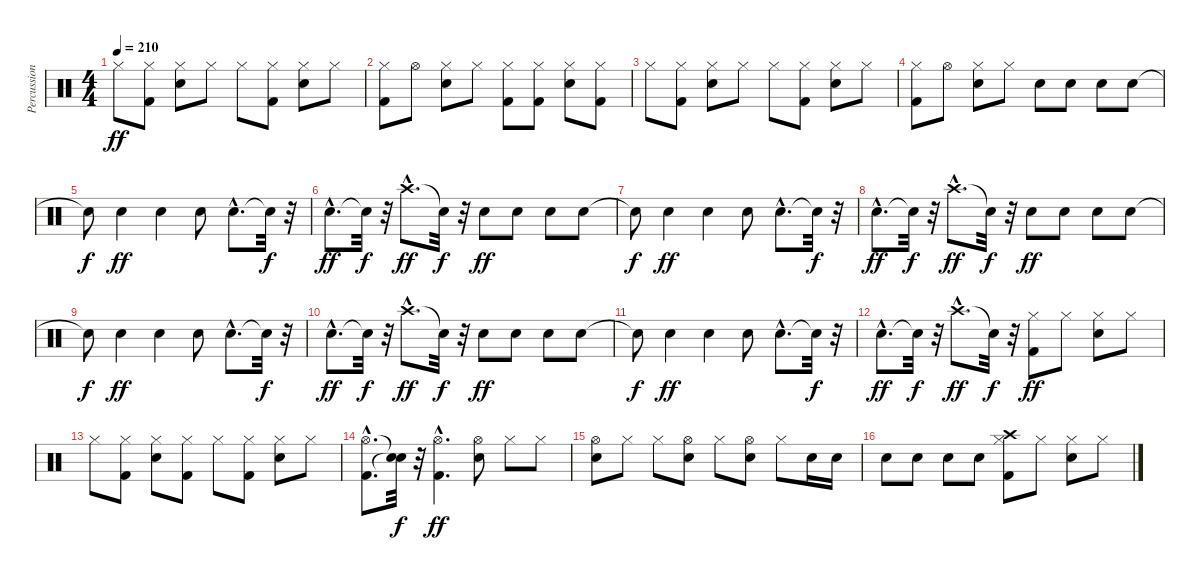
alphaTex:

\track ("Percussions" "Percussion") {instrument percussion}
\staff {score}
\articulation defaults
\ts (4 4)
\tempo 210
\clef neutral
\ks c "Hi-Hat (closed)".8{dy ff}
("Kick (hit) 2" "Hi-Hat (closed)").8 ("Snare (hit) 2" "Hi-Hat (closed)").8 "Hi-Hat (closed)".8 "Hi-Hat (closed)".8 ("Kick (hit) 2" "Hi-Hat (closed)").8 ("Snare (hit) 2" "Hi-Hat (closed)").8 "Hi-Hat (closed)".8 |
("Kick (hit) 2" "Hi-Hat (closed)").8 "Hi-Hat (open)".8 ("Snare (hit) 2" "Hi-Hat (closed)").8 "Hi-Hat (closed)".8 ("Kick (hit) 2" "Hi-Hat (closed)").8 ("Kick (hit) 2" "Hi-Hat (closed)").8 ("Snare (hit) 2" "Hi-Hat (closed)").8 ("Kick (hit) 2" "Hi-Hat (closed)").8 |
"Hi-Hat (closed)".8 ("Kick (hit) 2" "Hi-Hat (closed)").8 ("Snare (hit) 2" "Hi-Hat (closed)").8 "Hi-Hat (closed)".8 "Hi-Hat (closed)".8 ("Kick (hit) 2" "Hi-Hat (closed)").8 ("Snare (hit) 2" "Hi-Hat (closed)").8 "Hi-Hat (closed)".8 |
("Kick (hit) 2" "Hi-Hat (closed)").8 "Hi-Hat (open)".8 ("Snare (hit) 2" "Hi-Hat (closed)").8 "Hi-Hat (closed)".8 "Snare (hit) 2".8 "Snare (hit) 2".8 "Snare (hit) 2".8 "Snare (hit) 2".8 |
"Snare (hit)"{t}.8{dy f} "Snare (hit) 2".4{dy ff} "Snare (hit) 2".4 "Snare (hit) 2".8 "Snare (hit) 2"{hac}.8{d} "Snare (hit)"{t}.32{dy f} r.32 |
"Snare (hit) 2"{hac}.8{d dy ff} "Snare (hit)"{t}.32{dy f} r.32 "Crash high (hit)"{hac}.8{d dy ff} "Snare (hit)"{t}.32{dy f} r.32 "Snare (hit) 2".8{dy ff} "Snare (hit) 2".8 "Snare (hit) 2".8 "Snare (hit) 2".8 |
"Snare (hit)"{t}.8{dy f} "Snare (hit) 2".4{dy ff} "Snare (hit) 2".4 "Snare (hit) 2".8 "Snare (hit) 2"{hac}.8{d} "Snare (hit)"{t}.32{dy f} r.32 |
"Snare (hit) 2"{hac}.8{d dy ff} "Snare (hit)"{t}.32{dy f} r.32 "Crash high (hit)"{hac}.8{d dy ff} "Snare (hit)"{t}.32{dy f} r.32 "Snare (hit) 2".8{dy ff} "Snare (hit) 2".8 "Snare (hit) 2".8 "Snare (hit) 2".8 |
"Snare (hit)"{t}.8{dy f} "Snare (hit) 2".4{dy ff} "Snare (hit) 2".4 "Snare (hit) 2".8 "Snare (hit) 2"{hac}.8{d} "Snare (hit)"{t}.32{dy f} r.32 |
"Snare (hit) 2"{hac}.8{d dy ff} "Snare (hit)"{t}.32{dy f} r.32 "Crash high (hit)"{hac}.8{d dy ff} "Snare (hit)"{t}.32{dy f} r.32 "Snare (hit) 2".8{dy ff} "Snare (hit) 2".8 "Snare (hit) 2".8 "Snare (hit) 2".8 |
"Snare (hit)"{t}.8{dy f} "Snare (hit) 2".4{dy ff} "Snare (hit) 2".4 "Snare (hit) 2".8 "Snare (hit) 2"{hac}.8{d} "Snare (hit)"{t}.32{dy f} r.32 |
"Snare (hit) 2"{hac}.8{d dy ff} "Snare (hit)"{t}.32{dy f} r.32 "Crash high (hit)"{hac}.8{d dy ff} "Snare (hit)"{t}.32{dy f} r.32 ("Kick (hit) 2" "Hi-Hat (closed)").8{dy ff} "Hi-Hat (closed)".8 ("Snare (hit) 2" "Hi-Hat (closed)").8 "Hi-Hat (closed)".8 |
"Hi-Hat (closed)".8 ("Kick (hit) 2" "Hi-Hat (closed)").8 ("Snare (hit) 2" "Hi-Hat (closed)").8 ("Kick (hit) 2" "Hi-Hat (closed)").8 "Hi-Hat (closed)".8 ("Kick (hit) 2" "Hi-Hat (closed)").8 ("Snare (hit) 2" "Hi-Hat (closed)").8 "Hi-Hat (closed)".8 |
("Kick (hit) 2"{hac} "Hi-Hat (open)"{hac}).8{d} ("Snare (hit)"{t} "Snare (hit)"{t}).32{dy f} r.32 ("Kick (hit) 2"{hac} "Hi-Hat (open)"{hac}).4{d dy ff} ("Snare (hit) 2" "Hi-Hat (open)").8 "Hi-Hat (closed)".8 "Hi-Hat (closed)".8 |
("Snare (hit) 2" "Hi-Hat (open)").8 "Hi-Hat (closed)".8 "Hi-Hat (closed)".8 ("Snare (hit) 2" "Hi-Hat (open)").8 "Hi-Hat (closed)".8 ("Snare (hit) 2" "Hi-Hat (open)").8 "Hi-Hat (closed)".8 "Snare (hit) 2".16 "Snare (hit) 2".16 |
"Snare (hit) 2".8 "Snare (hit) 2".8 "Snare (hit) 2".8 "Snare (hit) 2".8 ("Kick (hit) 2" "Hi-Hat (closed)" "Crash high (hit)").8 "Hi-Hat (closed)".8 ("Snare (hit) 2" "Hi-Hat (closed)").8 "Hi-Hat (closed)".8
